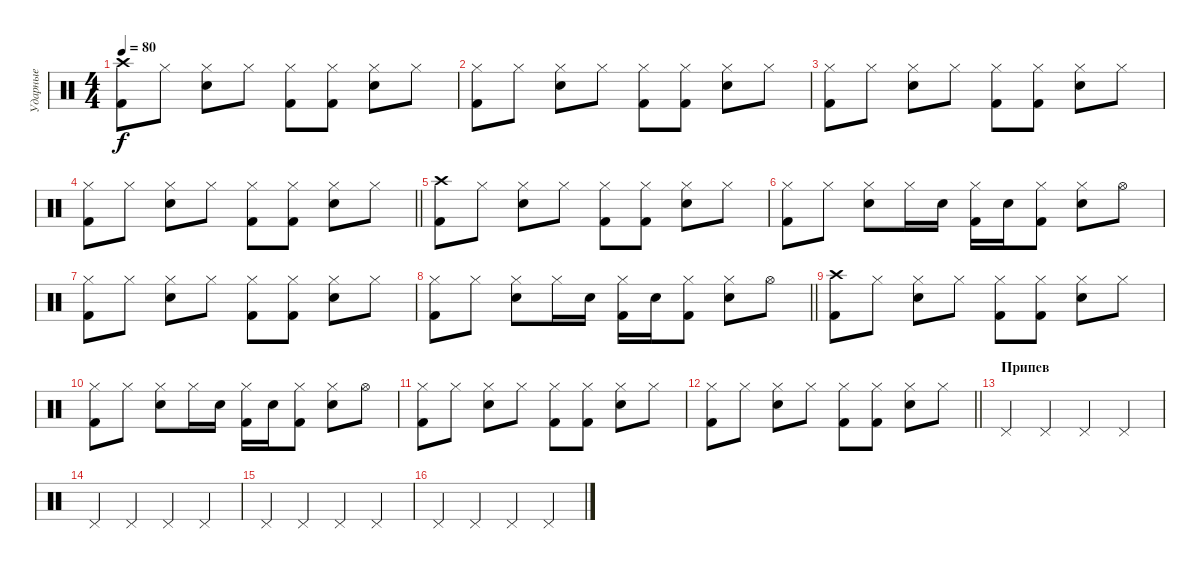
\track ("Ударные" "Ударные") {instrument percussion}
\staff {score}
\articulation defaults
\ts (4 4)
\tempo 80
\clef neutral
\ks c
("Crash high (hit)" "Kick (hit) 2").8{dy f} "Hi-Hat (closed)".8 ("Hi-Hat (closed)" "Electric Snare (hit)").8 "Hi-Hat (closed)".8 ("Hi-Hat (closed)" "Kick (hit) 2").8 ("Hi-Hat (closed)" "Kick (hit) 2").8 ("Hi-Hat (closed)" "Electric Snare (hit)").8 "Hi-Hat (closed)".8 |
("Hi-Hat (closed)" "Kick (hit) 2").8 "Hi-Hat (closed)".8 ("Hi-Hat (closed)" "Electric Snare (hit)").8 "Hi-Hat (closed)".8 ("Hi-Hat (closed)" "Kick (hit) 2").8 ("Hi-Hat (closed)" "Kick (hit) 2").8 ("Hi-Hat (closed)" "Electric Snare (hit)").8 "Hi-Hat (closed)".8 |
("Hi-Hat (closed)" "Kick (hit) 2").8 "Hi-Hat (closed)".8 ("Hi-Hat (closed)" "Electric Snare (hit)").8 "Hi-Hat (closed)".8 ("Hi-Hat (closed)" "Kick (hit) 2").8 ("Hi-Hat (closed)" "Kick (hit) 2").8 ("Hi-Hat (closed)" "Electric Snare (hit)").8 "Hi-Hat (closed)".8 |
\barLineRight lightlight
("Hi-Hat (closed)" "Kick (hit) 2").8 "Hi-Hat (closed)".8 ("Hi-Hat (closed)" "Electric Snare (hit)").8 "Hi-Hat (closed)".8 ("Hi-Hat (closed)" "Kick (hit) 2").8 ("Hi-Hat (closed)" "Kick (hit) 2").8 ("Hi-Hat (closed)" "Electric Snare (hit)").8 "Hi-Hat (closed)".8 |
("Crash high (hit)" "Kick (hit) 2").8 "Hi-Hat (closed)".8 ("Hi-Hat (closed)" "Electric Snare (hit)").8 "Hi-Hat (closed)".8 ("Hi-Hat (closed)" "Kick (hit) 2").8 ("Hi-Hat (closed)" "Kick (hit) 2").8 ("Hi-Hat (closed)" "Electric Snare (hit)").8 "Hi-Hat (closed)".8 |
("Hi-Hat (closed)" "Kick (hit) 2").8 "Hi-Hat (closed)".8 ("Hi-Hat (closed)" "Electric Snare (hit)").8 "Hi-Hat (closed)".16 "Electric Snare (hit)".16 ("Hi-Hat (closed)" "Kick (hit) 2").16 "Electric Snare (hit)".16 ("Hi-Hat (closed)" "Kick (hit) 2").8 ("Hi-Hat (closed)" "Electric Snare (hit)").8 "Hi-Hat (open)".8 |
("Hi-Hat (closed)" "Kick (hit) 2").8 "Hi-Hat (closed)".8 ("Hi-Hat (closed)" "Electric Snare (hit)").8 "Hi-Hat (closed)".8 ("Hi-Hat (closed)" "Kick (hit) 2").8 ("Hi-Hat (closed)" "Kick (hit) 2").8 ("Hi-Hat (closed)" "Electric Snare (hit)").8 "Hi-Hat (closed)".8 |
\barLineRight lightlight
("Hi-Hat (closed)" "Kick (hit) 2").8 "Hi-Hat (closed)".8 ("Hi-Hat (closed)" "Electric Snare (hit)").8 "Hi-Hat (closed)".16 "Electric Snare (hit)".16 ("Hi-Hat (closed)" "Kick (hit) 2").16 "Electric Snare (hit)".16 ("Hi-Hat (closed)" "Kick (hit) 2").8 ("Hi-Hat (closed)" "Electric Snare (hit)").8 "Hi-Hat (open)".8 |
("Crash high (hit)" "Kick (hit) 2").8 "Hi-Hat (closed)".8 ("Hi-Hat (closed)" "Electric Snare (hit)").8 "Hi-Hat (closed)".8 ("Hi-Hat (closed)" "Kick (hit) 2").8 ("Hi-Hat (closed)" "Kick (hit) 2").8 ("Hi-Hat (closed)" "Electric Snare (hit)").8 "Hi-Hat (closed)".8 |
("Hi-Hat (closed)" "Kick (hit) 2").8 "Hi-Hat (closed)".8 ("Hi-Hat (closed)" "Electric Snare (hit)").8 "Hi-Hat (closed)".16 "Electric Snare (hit)".16 ("Hi-Hat (closed)" "Kick (hit) 2").16 "Electric Snare (hit)".16 ("Hi-Hat (closed)" "Kick (hit) 2").8 ("Hi-Hat (closed)" "Electric Snare (hit)").8 "Hi-Hat (open)".8 |
("Hi-Hat (closed)" "Kick (hit) 2").8 "Hi-Hat (closed)".8 ("Hi-Hat (closed)" "Electric Snare (hit)").8 "Hi-Hat (closed)".8 ("Hi-Hat (closed)" "Kick (hit) 2").8 ("Hi-Hat (closed)" "Kick (hit) 2").8 ("Hi-Hat (closed)" "Electric Snare (hit)").8 "Hi-Hat (closed)".8 |
\barLineRight lightlight
("Hi-Hat (closed)" "Kick (hit) 2").8 "Hi-Hat (closed)".8 ("Hi-Hat (closed)" "Electric Snare (hit)").8 "Hi-Hat (closed)".8 ("Hi-Hat (closed)" "Kick (hit) 2").8 ("Hi-Hat (closed)" "Kick (hit) 2").8 ("Hi-Hat (closed)" "Electric Snare (hit)").8 "Hi-Hat (closed)".8 |
\section ("" "Припев")
"Pedal Hi-Hat (hit)".4 "Pedal Hi-Hat (hit)".4 "Pedal Hi-Hat (hit)".4 "Pedal Hi-Hat (hit)".4 |
"Pedal Hi-Hat (hit)".4 "Pedal Hi-Hat (hit)".4 "Pedal Hi-Hat (hit)".4 "Pedal Hi-Hat (hit)".4 |
"Pedal Hi-Hat (hit)".4 "Pedal Hi-Hat (hit)".4 "Pedal Hi-Hat (hit)".4 "Pedal Hi-Hat (hit)".4 |
"Pedal Hi-Hat (hit)".4 "Pedal Hi-Hat (hit)".4 "Pedal Hi-Hat (hit)".4 "Pedal Hi-Hat (hit)".4
